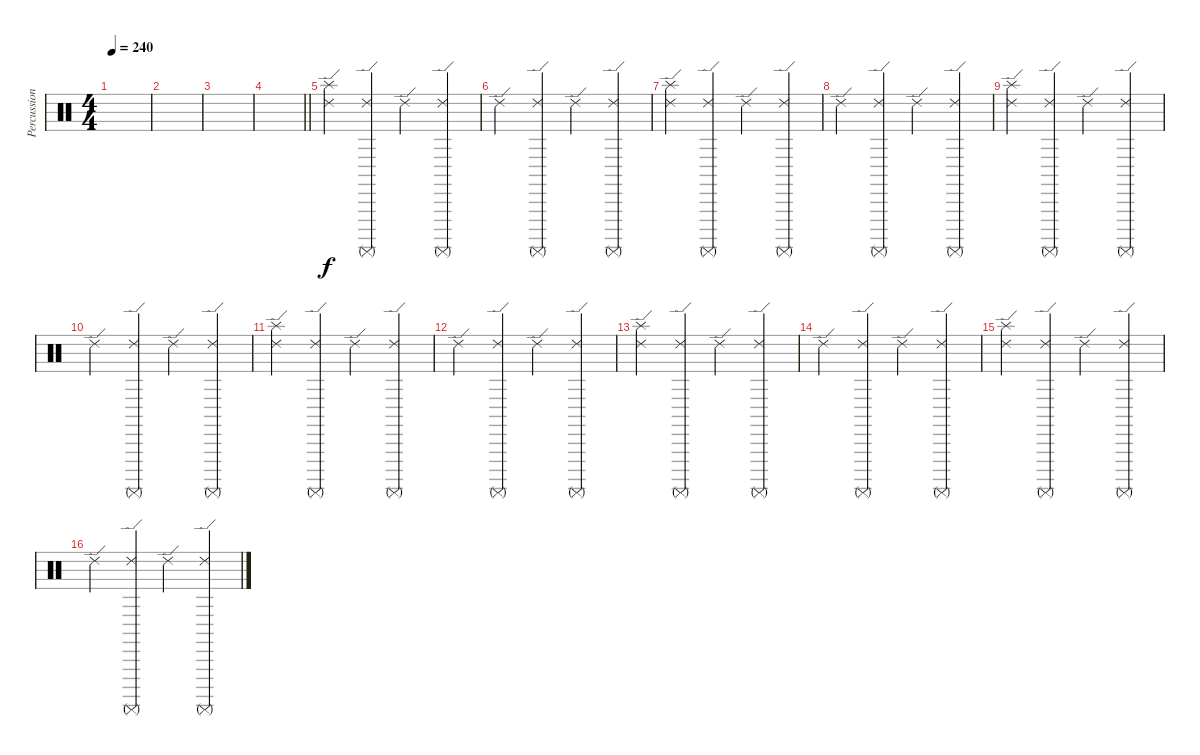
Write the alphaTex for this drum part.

\track ("Percussions" "Percussion") {instrument percussion}
\staff {score}
\articulation defaults
\ts (4 4)
\tempo 240
\clef neutral
\ks c
|
|
|
\barLineRight lightlight
|
\section ("" "")
("Splash (hit)" "Ride (edge) 2").4 ("Ride (edge) 2" "Surdo (mute)").4 "Ride (edge) 2".4 ("Ride (edge) 2" "Surdo (mute)").4 |
"Ride (edge) 2".4 ("Ride (edge) 2" "Surdo (mute)").4 "Ride (edge) 2".4 ("Ride (edge) 2" "Surdo (mute)").4 |
("Splash (hit)" "Ride (edge) 2").4 ("Ride (edge) 2" "Surdo (mute)").4 "Ride (edge) 2".4 ("Ride (edge) 2" "Surdo (mute)").4 |
"Ride (edge) 2".4 ("Ride (edge) 2" "Surdo (mute)").4 "Ride (edge) 2".4 ("Ride (edge) 2" "Surdo (mute)").4 |
("Splash (hit)" "Ride (edge) 2").4 ("Ride (edge) 2" "Surdo (mute)").4 "Ride (edge) 2".4 ("Ride (edge) 2" "Surdo (mute)").4 |
"Ride (edge) 2".4 ("Ride (edge) 2" "Surdo (mute)").4 "Ride (edge) 2".4 ("Ride (edge) 2" "Surdo (mute)").4 |
("Splash (hit)" "Ride (edge) 2").4 ("Ride (edge) 2" "Surdo (mute)").4 "Ride (edge) 2".4 ("Ride (edge) 2" "Surdo (mute)").4 |
"Ride (edge) 2".4 ("Ride (edge) 2" "Surdo (mute)").4 "Ride (edge) 2".4 ("Ride (edge) 2" "Surdo (mute)").4 |
("Splash (hit)" "Ride (edge) 2").4 ("Ride (edge) 2" "Surdo (mute)").4 "Ride (edge) 2".4 ("Ride (edge) 2" "Surdo (mute)").4 |
"Ride (edge) 2".4 ("Ride (edge) 2" "Surdo (mute)").4 "Ride (edge) 2".4 ("Ride (edge) 2" "Surdo (mute)").4 |
("Splash (hit)" "Ride (edge) 2").4 ("Ride (edge) 2" "Surdo (mute)").4 "Ride (edge) 2".4 ("Ride (edge) 2" "Surdo (mute)").4 |
"Ride (edge) 2".4 ("Ride (edge) 2" "Surdo (mute)").4 "Ride (edge) 2".4 ("Ride (edge) 2" "Surdo (mute)").4
